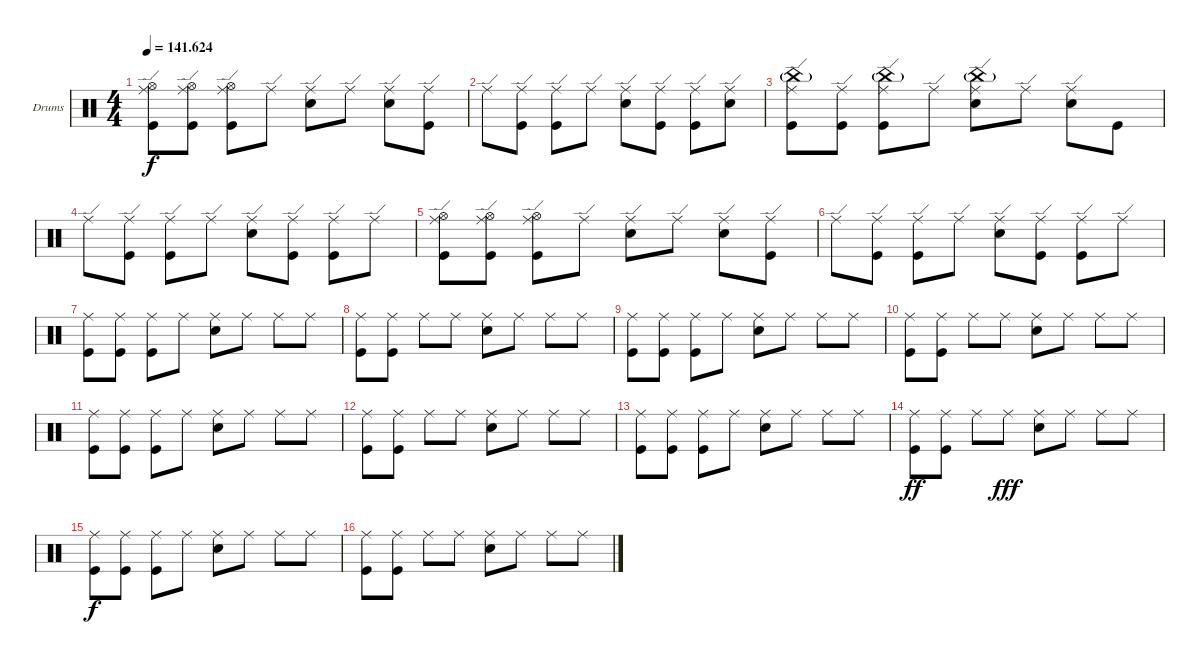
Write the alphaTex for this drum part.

\defaultSystemsLayout 4
\bracketExtendMode groupsimilarinstruments
\firstSystemTrackNameOrientation horizontal
\otherSystemsTrackNameOrientation horizontal
\track ("Drumkit" "Drums") {instrument percussion}
\staff {score}
\articulation defaults
\ts (4 4)
\tempo
141.624
\accidentals auto
\clef neutral
\ottava regular
\simile none
\ks c
("Hi-Hat (open)" "Kick (hit)" "Ride (edge)").8{dy f} ("Hi-Hat (open)" "Kick (hit)" "Ride (edge)").8 ("Hi-Hat (open)" "Kick (hit)" "Ride (edge)").8 "Ride (edge)".8 ("Ride (edge)" "Snare (hit) 2").8 "Ride (edge)".8 ("Ride (edge)" "Snare (hit) 2").8 ("Ride (edge)" "Kick (hit)").8 |
"Ride (edge)".8 ("Kick (hit)" "Ride (edge)").8 ("Ride (edge)" "Kick (hit)").8 "Ride (edge)".8 ("Ride (edge)" "Snare (hit) 2").8 ("Kick (hit)" "Ride (edge)").8 ("Ride (edge)" "Kick (hit)").8 ("Ride (edge)" "Snare (hit) 2").8 |
("Kick (hit)" "Ride (edge)" "China (hit)"{g}).8 ("Kick (hit)" "Ride (edge)").8 ("Kick (hit)" "Ride (edge)" "China (hit)"{g}).8 "Ride (edge)".8 ("Snare (hit) 2" "Ride (edge)" "China (hit)"{g}).8 "Ride (edge)".8 ("Ride (edge)" "Snare (hit) 2").8 "Kick (hit)".8 |
"Ride (edge)".8 ("Kick (hit)" "Ride (edge)").8 ("Ride (edge)" "Kick (hit)").8 "Ride (edge)".8 ("Ride (edge)" "Snare (hit) 2").8 ("Kick (hit)" "Ride (edge)").8 ("Ride (edge)" "Kick (hit)").8 "Ride (edge)".8 |
("Hi-Hat (open)" "Kick (hit)" "Ride (edge)").8 ("Hi-Hat (open)" "Kick (hit)" "Ride (edge)").8 ("Hi-Hat (open)" "Kick (hit)" "Ride (edge)").8 "Ride (edge)".8 ("Ride (edge)" "Snare (hit) 2").8 "Ride (edge)".8 ("Ride (edge)" "Snare (hit) 2").8 ("Ride (edge)" "Kick (hit)").8 |
"Ride (edge)".8 ("Kick (hit)" "Ride (edge)").8 ("Ride (edge)" "Kick (hit)").8 "Ride (edge)".8 ("Ride (edge)" "Snare (hit) 2").8 ("Kick (hit)" "Ride (edge)").8 ("Ride (edge)" "Kick (hit)").8 "Ride (edge)".8 |
("Ride (middle)" "Kick (hit)").8 ("Ride (middle)" "Kick (hit)").8 ("Ride (middle)" "Kick (hit)").8 "Ride (middle)".8 ("Ride (middle)" "Snare (hit) 2").8 "Ride (middle)".8 "Ride (middle)".8 "Ride (middle)".8 |
("Ride (middle)" "Kick (hit)").8 ("Ride (middle)" "Kick (hit)").8 "Ride (middle)".8 "Ride (middle)".8 ("Ride (middle)" "Snare (hit) 2").8 "Ride (middle)".8 "Ride (middle)".8 "Ride (middle)".8 |
("Ride (middle)" "Kick (hit)").8 ("Ride (middle)" "Kick (hit)").8 ("Ride (middle)" "Kick (hit)").8 "Ride (middle)".8 ("Ride (middle)" "Snare (hit) 2").8 "Ride (middle)".8 "Ride (middle)".8 "Ride (middle)".8 |
("Ride (middle)" "Kick (hit)").8 ("Ride (middle)" "Kick (hit)").8 "Ride (middle)".8 "Ride (middle)".8 ("Ride (middle)" "Snare (hit) 2").8 "Ride (middle)".8 "Ride (middle)".8 "Ride (middle)".8 |
("Ride (middle)" "Kick (hit)").8 ("Ride (middle)" "Kick (hit)").8 ("Ride (middle)" "Kick (hit)").8 "Ride (middle)".8 ("Ride (middle)" "Snare (hit) 2").8 "Ride (middle)".8 "Ride (middle)".8 "Ride (middle)".8 |
("Ride (middle)" "Kick (hit)").8 ("Ride (middle)" "Kick (hit)").8 "Ride (middle)".8 "Ride (middle)".8 ("Ride (middle)" "Snare (hit) 2").8 "Ride (middle)".8 "Ride (middle)".8 "Ride (middle)".8 |
("Ride (middle)" "Kick (hit)").8 ("Ride (middle)" "Kick (hit)").8 ("Ride (middle)" "Kick (hit)").8 "Ride (middle)".8 ("Ride (middle)" "Snare (hit) 2").8 "Ride (middle)".8 "Ride (middle)".8 "Ride (middle)".8 |
("Ride (middle)" "Kick (hit)").8{dy ff} ("Ride (middle)" "Kick (hit)").8 "Ride (middle)".8 "Ride (middle)".8{dy fff} ("Ride (middle)" "Snare (hit) 2").8 "Ride (middle)".8 "Ride (middle)".8 "Ride (middle)".8 |
("Ride (middle)" "Kick (hit)").8{dy f} ("Ride (middle)" "Kick (hit)").8 ("Ride (middle)" "Kick (hit)").8 "Ride (middle)".8 ("Ride (middle)" "Snare (hit) 2").8 "Ride (middle)".8 "Ride (middle)".8 "Ride (middle)".8 |
("Ride (middle)" "Kick (hit)").8 ("Ride (middle)" "Kick (hit)").8 "Ride (middle)".8 "Ride (middle)".8 ("Ride (middle)" "Snare (hit) 2").8 "Ride (middle)".8 "Ride (middle)".8 "Ride (middle)".8
